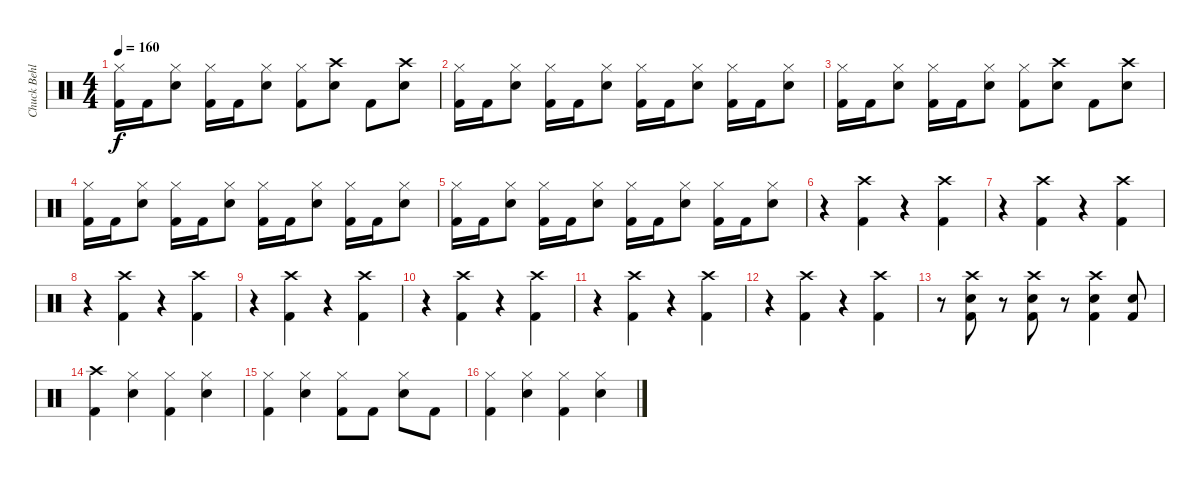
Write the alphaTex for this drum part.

\track ("Chuck Behler" "Chuck Behl") {instrument percussion}
\staff {score}
\articulation defaults
\ts (4 4)
\tempo 160
\clef neutral
\ks c
("Hi-Hat (closed)" "Kick (hit) 2").16{dy f} "Kick (hit) 2".16 ("Hi-Hat (closed)" "Snare (hit) 2").8 ("Hi-Hat (closed)" "Kick (hit) 2").16 "Kick (hit) 2".16 ("Hi-Hat (closed)" "Snare (hit) 2").8 ("Hi-Hat (closed)" "Kick (hit) 2").8 ("Crash high (hit)" "Snare (hit) 2").8 "Kick (hit) 2".8 ("Crash high (hit)" "Snare (hit) 2").8 |
("Hi-Hat (closed)" "Kick (hit) 2").16 "Kick (hit) 2".16 ("Hi-Hat (closed)" "Snare (hit) 2").8 ("Hi-Hat (closed)" "Kick (hit) 2").16 "Kick (hit) 2".16 ("Hi-Hat (closed)" "Snare (hit) 2").8 ("Hi-Hat (closed)" "Kick (hit) 2").16 "Kick (hit) 2".16 ("Hi-Hat (closed)" "Snare (hit) 2").8 ("Hi-Hat (closed)" "Kick (hit) 2").16 "Kick (hit) 2".16 ("Hi-Hat (closed)" "Snare (hit) 2").8 |
("Hi-Hat (closed)" "Kick (hit) 2").16 "Kick (hit) 2".16 ("Hi-Hat (closed)" "Snare (hit) 2").8 ("Hi-Hat (closed)" "Kick (hit) 2").16 "Kick (hit) 2".16 ("Hi-Hat (closed)" "Snare (hit) 2").8 ("Hi-Hat (closed)" "Kick (hit) 2").8 ("Crash high (hit)" "Snare (hit) 2").8 "Kick (hit) 2".8 ("Crash high (hit)" "Snare (hit) 2").8 |
("Hi-Hat (closed)" "Kick (hit) 2").16 "Kick (hit) 2".16 ("Hi-Hat (closed)" "Snare (hit) 2").8 ("Hi-Hat (closed)" "Kick (hit) 2").16 "Kick (hit) 2".16 ("Hi-Hat (closed)" "Snare (hit) 2").8 ("Hi-Hat (closed)" "Kick (hit) 2").16 "Kick (hit) 2".16 ("Hi-Hat (closed)" "Snare (hit) 2").8 ("Hi-Hat (closed)" "Kick (hit) 2").16 "Kick (hit) 2".16 ("Hi-Hat (closed)" "Snare (hit) 2").8 |
("Hi-Hat (closed)" "Kick (hit) 2").16 "Kick (hit) 2".16 ("Hi-Hat (closed)" "Snare (hit) 2").8 ("Hi-Hat (closed)" "Kick (hit) 2").16 "Kick (hit) 2".16 ("Hi-Hat (closed)" "Snare (hit) 2").8 ("Hi-Hat (closed)" "Kick (hit) 2").16 "Kick (hit) 2".16 ("Hi-Hat (closed)" "Snare (hit) 2").8 ("Hi-Hat (closed)" "Kick (hit) 2").16 "Kick (hit) 2".16 ("Hi-Hat (closed)" "Snare (hit) 2").8 |
r.4 ("Crash high (hit)" "Kick (hit) 2").4 r.4 ("Crash high (hit)" "Kick (hit) 2").4 |
r.4 ("Crash high (hit)" "Kick (hit) 2").4 r.4 ("Crash high (hit)" "Kick (hit) 2").4 |
r.4 ("Crash high (hit)" "Kick (hit) 2").4 r.4 ("Crash high (hit)" "Kick (hit) 2").4 |
r.4 ("Crash high (hit)" "Kick (hit) 2").4 r.4 ("Crash high (hit)" "Kick (hit) 2").4 |
r.4 ("Crash high (hit)" "Kick (hit) 2").4 r.4 ("Crash high (hit)" "Kick (hit) 2").4 |
r.4 ("Crash high (hit)" "Kick (hit) 2").4 r.4 ("Crash high (hit)" "Kick (hit) 2").4 |
r.4 ("Crash high (hit)" "Kick (hit) 2").4 r.4 ("Crash high (hit)" "Kick (hit) 2").4 |
r.8 ("Crash high (hit)" "Snare (hit) 2" "Kick (hit) 2").8 r.8 ("Crash high (hit)" "Snare (hit) 2" "Kick (hit) 2").8 r.8 ("Crash high (hit)" "Snare (hit) 2" "Kick (hit) 2").4 ("Snare (hit) 2" "Kick (hit) 2").8 |
("Crash high (hit)" "Kick (hit) 2").4 ("Hi-Hat (closed)" "Snare (hit) 2").4 ("Hi-Hat (closed)" "Kick (hit) 2").4 ("Hi-Hat (closed)" "Snare (hit) 2").4 |
("Hi-Hat (closed)" "Kick (hit) 2").4 ("Hi-Hat (closed)" "Snare (hit) 2").4 ("Hi-Hat (closed)" "Kick (hit) 2").8 "Kick (hit) 2".8 ("Hi-Hat (closed)" "Snare (hit) 2").8 "Kick (hit) 2".8 |
("Hi-Hat (closed)" "Kick (hit) 2").4 ("Hi-Hat (closed)" "Snare (hit) 2").4 ("Hi-Hat (closed)" "Kick (hit) 2").4 ("Hi-Hat (closed)" "Snare (hit) 2").4
